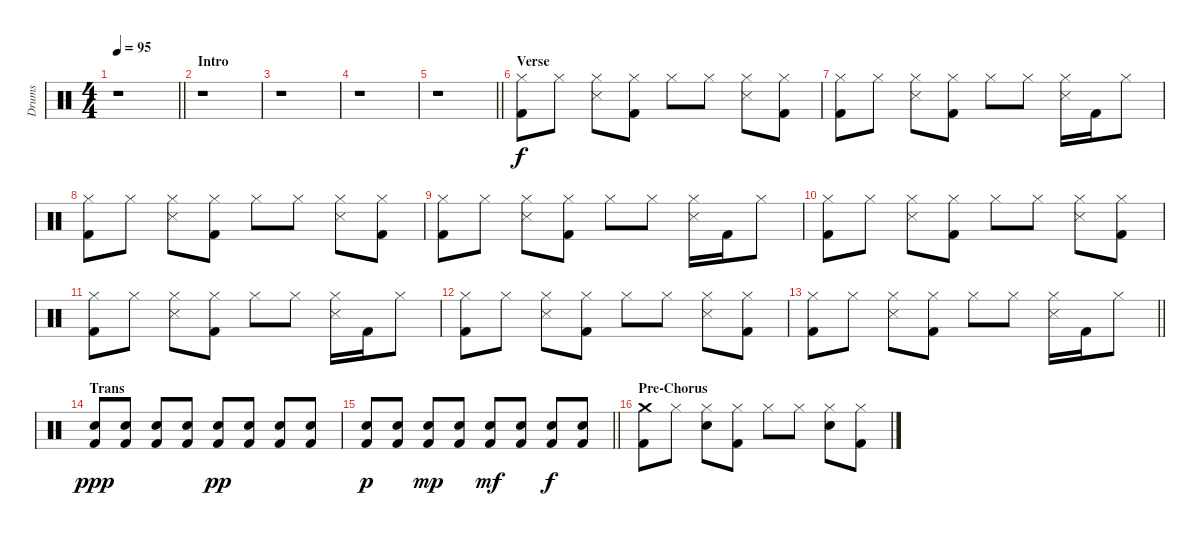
\track ("Drums" "Drums") {instrument percussion}
\staff {score}
\articulation defaults
\ts (4 4)
\tempo 95
\clef neutral
\barLineRight lightlight
\ks c
r.1{dy f} |
\section ("" "Intro")
r.1 |
r.1 |
r.1 |
\barLineRight lightlight
r.1 |
\section ("" "Verse")
("Hi-Hat (closed)" "Kick (hit) 2").8 "Hi-Hat (closed)".8 ("Hi-Hat (closed)" "Snare (side stick) 3").8 ("Hi-Hat (closed)" "Kick (hit) 2").8 "Hi-Hat (closed)".8 "Hi-Hat (closed)".8 ("Hi-Hat (closed)" "Snare (side stick) 3").8 ("Hi-Hat (closed)" "Kick (hit) 2").8 |
("Hi-Hat (closed)" "Kick (hit) 2").8 "Hi-Hat (closed)".8 ("Hi-Hat (closed)" "Snare (side stick) 3").8 ("Hi-Hat (closed)" "Kick (hit) 2").8 "Hi-Hat (closed)".8 "Hi-Hat (closed)".8 ("Hi-Hat (closed)" "Snare (side stick) 3").16 "Kick (hit) 2".16 "Hi-Hat (closed)".8 |
("Hi-Hat (closed)" "Kick (hit) 2").8 "Hi-Hat (closed)".8 ("Hi-Hat (closed)" "Snare (side stick) 3").8 ("Hi-Hat (closed)" "Kick (hit) 2").8 "Hi-Hat (closed)".8 "Hi-Hat (closed)".8 ("Hi-Hat (closed)" "Snare (side stick) 3").8 ("Hi-Hat (closed)" "Kick (hit) 2").8 |
("Hi-Hat (closed)" "Kick (hit) 2").8 "Hi-Hat (closed)".8 ("Hi-Hat (closed)" "Snare (side stick) 3").8 ("Hi-Hat (closed)" "Kick (hit) 2").8 "Hi-Hat (closed)".8 "Hi-Hat (closed)".8 ("Hi-Hat (closed)" "Snare (side stick) 3").16 "Kick (hit) 2".16 "Hi-Hat (closed)".8 |
("Hi-Hat (closed)" "Kick (hit) 2").8 "Hi-Hat (closed)".8 ("Hi-Hat (closed)" "Snare (side stick) 3").8 ("Hi-Hat (closed)" "Kick (hit) 2").8 "Hi-Hat (closed)".8 "Hi-Hat (closed)".8 ("Hi-Hat (closed)" "Snare (side stick) 3").8 ("Hi-Hat (closed)" "Kick (hit) 2").8 |
("Hi-Hat (closed)" "Kick (hit) 2").8 "Hi-Hat (closed)".8 ("Hi-Hat (closed)" "Snare (side stick) 3").8 ("Hi-Hat (closed)" "Kick (hit) 2").8 "Hi-Hat (closed)".8 "Hi-Hat (closed)".8 ("Hi-Hat (closed)" "Snare (side stick) 3").16 "Kick (hit) 2".16 "Hi-Hat (closed)".8 |
("Hi-Hat (closed)" "Kick (hit) 2").8 "Hi-Hat (closed)".8 ("Hi-Hat (closed)" "Snare (side stick) 3").8 ("Hi-Hat (closed)" "Kick (hit) 2").8 "Hi-Hat (closed)".8 "Hi-Hat (closed)".8 ("Hi-Hat (closed)" "Snare (side stick) 3").8 ("Hi-Hat (closed)" "Kick (hit) 2").8 |
\barLineRight lightlight
("Hi-Hat (closed)" "Kick (hit) 2").8 "Hi-Hat (closed)".8 ("Hi-Hat (closed)" "Snare (side stick) 3").8 ("Hi-Hat (closed)" "Kick (hit) 2").8 "Hi-Hat (closed)".8 "Hi-Hat (closed)".8 ("Hi-Hat (closed)" "Snare (side stick) 3").16 "Kick (hit) 2".16 "Hi-Hat (closed)".8 |
\section ("" "Trans")
("Snare (hit) 2" "Kick (hit) 2").8{dy ppp} ("Snare (hit) 2" "Kick (hit) 2").8 ("Snare (hit) 2" "Kick (hit) 2").8 ("Snare (hit) 2" "Kick (hit) 2").8 ("Snare (hit) 2" "Kick (hit) 2").8{dy pp} ("Snare (hit) 2" "Kick (hit) 2").8 ("Snare (hit) 2" "Kick (hit) 2").8 ("Snare (hit) 2" "Kick (hit) 2").8 |
\barLineRight lightlight
("Snare (hit) 2" "Kick (hit) 2").8{dy p} ("Snare (hit) 2" "Kick (hit) 2").8 ("Snare (hit) 2" "Kick (hit) 2").8{dy mp} ("Snare (hit) 2" "Kick (hit) 2").8 ("Snare (hit) 2" "Kick (hit) 2").8{dy mf} ("Snare (hit) 2" "Kick (hit) 2").8 ("Snare (hit) 2" "Kick (hit) 2").8{dy f} ("Snare (hit) 2" "Kick (hit) 2").8 |
\section ("" "Pre-Chorus")
("Crash medium (hit)" "Kick (hit) 2").8 "Hi-Hat (closed)".8 ("Hi-Hat (closed)" "Snare (hit) 2").8 ("Hi-Hat (closed)" "Kick (hit) 2").8 "Hi-Hat (closed)".8 "Hi-Hat (closed)".8 ("Hi-Hat (closed)" "Snare (hit) 2").8 ("Hi-Hat (closed)" "Kick (hit) 2").8
